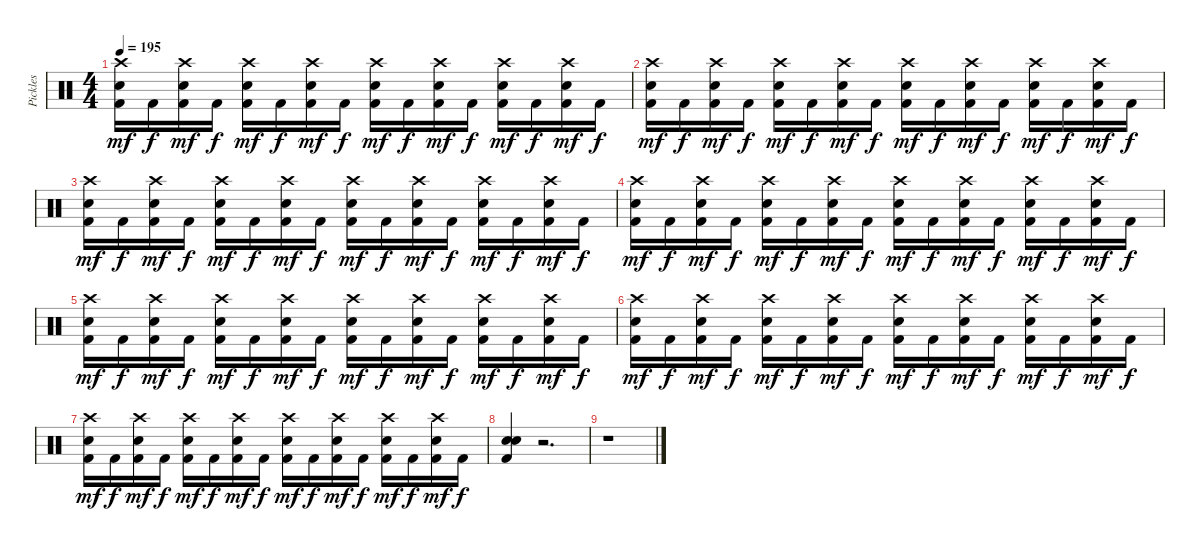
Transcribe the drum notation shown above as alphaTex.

\track ("Pickles" "Pickles") {instrument percussion}
\staff {score}
\articulation defaults
\ts (4 4)
\tempo 195
\clef neutral
\ks aminor
("Crash high (hit)" "Snare (hit) 2" "Kick (hit) 2").16{dy mf} "Kick (hit) 2".16{dy f} ("Crash high (hit)" "Snare (hit) 2" "Kick (hit) 2").16{dy mf} "Kick (hit) 2".16{dy f} ("Crash high (hit)" "Snare (hit) 2" "Kick (hit) 2").16{dy mf} "Kick (hit) 2".16{dy f} ("Crash high (hit)" "Snare (hit) 2" "Kick (hit) 2").16{dy mf} "Kick (hit) 2".16{dy f} ("Crash high (hit)" "Snare (hit) 2" "Kick (hit) 2").16{dy mf} "Kick (hit) 2".16{dy f} ("Crash high (hit)" "Snare (hit) 2" "Kick (hit) 2").16{dy mf} "Kick (hit) 2".16{dy f} ("Crash high (hit)" "Snare (hit) 2" "Kick (hit) 2").16{dy mf} "Kick (hit) 2".16{dy f} ("Crash high (hit)" "Snare (hit) 2" "Kick (hit) 2").16{dy mf} "Kick (hit) 2".16{dy f} |
("Crash high (hit)" "Snare (hit) 2" "Kick (hit) 2").16{dy mf} "Kick (hit) 2".16{dy f} ("Crash high (hit)" "Snare (hit) 2" "Kick (hit) 2").16{dy mf} "Kick (hit) 2".16{dy f} ("Crash high (hit)" "Snare (hit) 2" "Kick (hit) 2").16{dy mf} "Kick (hit) 2".16{dy f} ("Crash high (hit)" "Snare (hit) 2" "Kick (hit) 2").16{dy mf} "Kick (hit) 2".16{dy f} ("Crash high (hit)" "Snare (hit) 2" "Kick (hit) 2").16{dy mf} "Kick (hit) 2".16{dy f} ("Crash high (hit)" "Snare (hit) 2" "Kick (hit) 2").16{dy mf} "Kick (hit) 2".16{dy f} ("Crash high (hit)" "Snare (hit) 2" "Kick (hit) 2").16{dy mf} "Kick (hit) 2".16{dy f} ("Crash high (hit)" "Snare (hit) 2" "Kick (hit) 2").16{dy mf} "Kick (hit) 2".16{dy f} |
("Crash high (hit)" "Snare (hit) 2" "Kick (hit) 2").16{dy mf} "Kick (hit) 2".16{dy f} ("Crash high (hit)" "Snare (hit) 2" "Kick (hit) 2").16{dy mf} "Kick (hit) 2".16{dy f} ("Crash high (hit)" "Snare (hit) 2" "Kick (hit) 2").16{dy mf} "Kick (hit) 2".16{dy f} ("Crash high (hit)" "Snare (hit) 2" "Kick (hit) 2").16{dy mf} "Kick (hit) 2".16{dy f} ("Crash high (hit)" "Snare (hit) 2" "Kick (hit) 2").16{dy mf} "Kick (hit) 2".16{dy f} ("Crash high (hit)" "Snare (hit) 2" "Kick (hit) 2").16{dy mf} "Kick (hit) 2".16{dy f} ("Crash high (hit)" "Snare (hit) 2" "Kick (hit) 2").16{dy mf} "Kick (hit) 2".16{dy f} ("Crash high (hit)" "Snare (hit) 2" "Kick (hit) 2").16{dy mf} "Kick (hit) 2".16{dy f} |
("Crash high (hit)" "Snare (hit) 2" "Kick (hit) 2").16{dy mf} "Kick (hit) 2".16{dy f} ("Crash high (hit)" "Snare (hit) 2" "Kick (hit) 2").16{dy mf} "Kick (hit) 2".16{dy f} ("Crash high (hit)" "Snare (hit) 2" "Kick (hit) 2").16{dy mf} "Kick (hit) 2".16{dy f} ("Crash high (hit)" "Snare (hit) 2" "Kick (hit) 2").16{dy mf} "Kick (hit) 2".16{dy f} ("Crash high (hit)" "Snare (hit) 2" "Kick (hit) 2").16{dy mf} "Kick (hit) 2".16{dy f} ("Crash high (hit)" "Snare (hit) 2" "Kick (hit) 2").16{dy mf} "Kick (hit) 2".16{dy f} ("Crash high (hit)" "Snare (hit) 2" "Kick (hit) 2").16{dy mf} "Kick (hit) 2".16{dy f} ("Crash high (hit)" "Snare (hit) 2" "Kick (hit) 2").16{dy mf} "Kick (hit) 2".16{dy f} |
("Crash high (hit)" "Snare (hit) 2" "Kick (hit) 2").16{dy mf} "Kick (hit) 2".16{dy f} ("Crash high (hit)" "Snare (hit) 2" "Kick (hit) 2").16{dy mf} "Kick (hit) 2".16{dy f} ("Crash high (hit)" "Snare (hit) 2" "Kick (hit) 2").16{dy mf} "Kick (hit) 2".16{dy f} ("Crash high (hit)" "Snare (hit) 2" "Kick (hit) 2").16{dy mf} "Kick (hit) 2".16{dy f} ("Crash high (hit)" "Snare (hit) 2" "Kick (hit) 2").16{dy mf} "Kick (hit) 2".16{dy f} ("Crash high (hit)" "Snare (hit) 2" "Kick (hit) 2").16{dy mf} "Kick (hit) 2".16{dy f} ("Crash high (hit)" "Snare (hit) 2" "Kick (hit) 2").16{dy mf} "Kick (hit) 2".16{dy f} ("Crash high (hit)" "Snare (hit) 2" "Kick (hit) 2").16{dy mf} "Kick (hit) 2".16{dy f} |
("Crash high (hit)" "Snare (hit) 2" "Kick (hit) 2").16{dy mf} "Kick (hit) 2".16{dy f} ("Crash high (hit)" "Snare (hit) 2" "Kick (hit) 2").16{dy mf} "Kick (hit) 2".16{dy f} ("Crash high (hit)" "Snare (hit) 2" "Kick (hit) 2").16{dy mf} "Kick (hit) 2".16{dy f} ("Crash high (hit)" "Snare (hit) 2" "Kick (hit) 2").16{dy mf} "Kick (hit) 2".16{dy f} ("Crash high (hit)" "Snare (hit) 2" "Kick (hit) 2").16{dy mf} "Kick (hit) 2".16{dy f} ("Crash high (hit)" "Snare (hit) 2" "Kick (hit) 2").16{dy mf} "Kick (hit) 2".16{dy f} ("Crash high (hit)" "Snare (hit) 2" "Kick (hit) 2").16{dy mf} "Kick (hit) 2".16{dy f} ("Crash high (hit)" "Snare (hit) 2" "Kick (hit) 2").16{dy mf} "Kick (hit) 2".16{dy f} |
("Crash high (hit)" "Snare (hit) 2" "Kick (hit) 2").16{dy mf} "Kick (hit) 2".16{dy f} ("Crash high (hit)" "Snare (hit) 2" "Kick (hit) 2").16{dy mf} "Kick (hit) 2".16{dy f} ("Crash high (hit)" "Snare (hit) 2" "Kick (hit) 2").16{dy mf} "Kick (hit) 2".16{dy f} ("Crash high (hit)" "Snare (hit) 2" "Kick (hit) 2").16{dy mf} "Kick (hit) 2".16{dy f} ("Crash high (hit)" "Snare (hit) 2" "Kick (hit) 2").16{dy mf} "Kick (hit) 2".16{dy f} ("Crash high (hit)" "Snare (hit) 2" "Kick (hit) 2").16{dy mf} "Kick (hit) 2".16{dy f} ("Crash high (hit)" "Snare (hit) 2" "Kick (hit) 2").16{dy mf} "Kick (hit) 2".16{dy f} ("Crash high (hit)" "Snare (hit) 2" "Kick (hit) 2").16{dy mf} "Kick (hit) 2".16{dy f} |
("Snare (hit) 2" "Snare (hit) 2" "Kick (hit) 2").4 r.2{d volume 0} |
r.1
